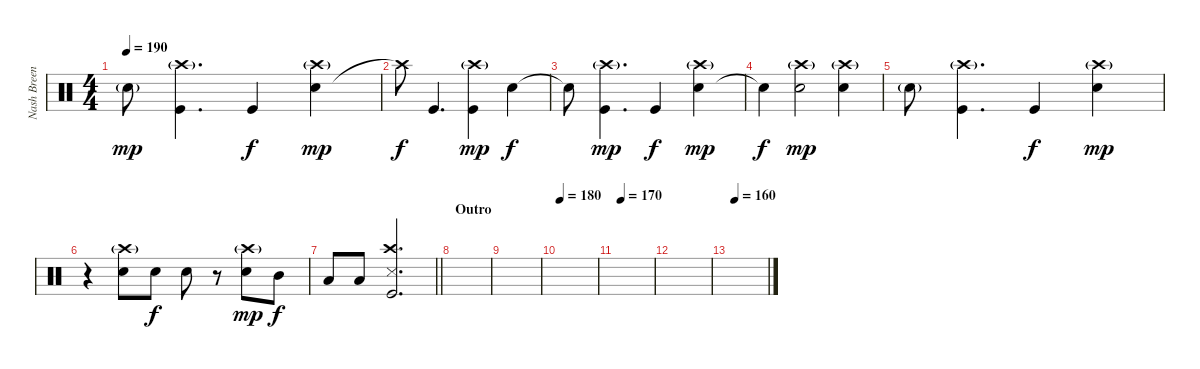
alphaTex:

\track ("Nash Breen (Percussion)" "Nash Breen") {instrument percussion}
\staff {score}
\articulation defaults
\ts (4 4)
\tempo 190
\clef neutral
\ks c "Electric Snare (hit)"{g}.8{dy mp}
("Kick (hit)" "Crash high (hit)"{g}).4{d} "Kick (hit)".4{dy f} ("Electric Snare (hit)" "Crash high (hit)"{g}).4{dy mp} |
"Crash high (hit)"{t}.8{dy f} "Kick (hit)".4{d} ("Kick (hit)" "Crash high (hit)"{g}).4{dy mp} "Electric Snare (hit)".4{dy f} |
"Electric Snare (hit)"{t}.8 ("Kick (hit)" "Crash high (hit)"{g}).4{d dy mp} "Kick (hit)".4{dy f} ("Electric Snare (hit)" "Crash high (hit)"{g}).4{dy mp} |
"Electric Snare (hit)"{t}.4{dy f} ("Electric Snare (hit)" "Crash high (hit)"{g}).2{dy mp} ("Electric Snare (hit)" "Crash high (hit)"{g}).4 |
"Electric Snare (hit)"{g}.8 ("Kick (hit)" "Crash high (hit)"{g}).4{d} "Kick (hit)".4{dy f} ("Electric Snare (hit)" "Crash high (hit)"{g}).4{dy mp} |
r.4 ("Electric Snare (hit)" "Crash high (hit)"{g}).8 "Electric Snare (hit)".8{dy f} "Electric Snare (hit)".8 r.8 ("Electric Snare (hit)" "Crash high (hit)"{g}).8{dy mp} "Mid Tom (hit)".8{dy f} |
\barLineRight lightlight "Low Tom (hit)".8 "Low Tom (hit)".8
("Kick (hit)" "Snare (side stick) 3" "Crash high (hit)").2{d} |
\section ("" "Outro")
|
|
\tempo 180
|
\tempo (170 0.125)
|
|
\tempo (160 0.125)
